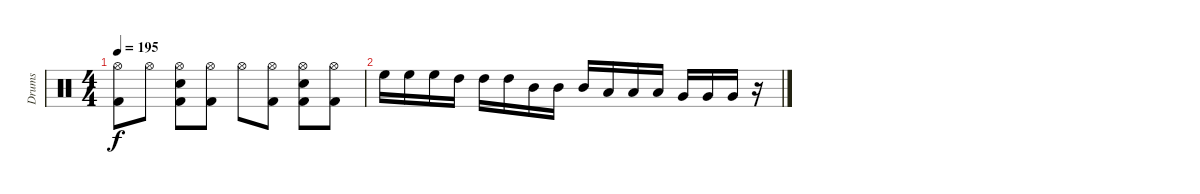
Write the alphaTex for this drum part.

\track ("Drums" "Drums") {instrument percussion}
\staff {score}
\articulation defaults
\ts (4 4)
\tempo 195
\clef neutral
\ks c
("Hi-Hat (open)" "Kick (hit) 2").8{dy f} "Hi-Hat (open)".8 ("Electric Snare (hit)" "Hi-Hat (open)" "Kick (hit) 2").8 ("Hi-Hat (open)" "Kick (hit) 2").8 "Hi-Hat (open)".8 ("Hi-Hat (open)" "Kick (hit) 2").8 ("Electric Snare (hit)" "Hi-Hat (open)" "Kick (hit) 2").8 ("Hi-Hat (open)" "Kick (hit) 2").8 |
"High Floor Tom (hit)".16 "High Floor Tom (hit)".16 "High Floor Tom (hit)".16 "High Tom (hit)".16 "High Tom (hit)".16 "High Tom (hit)".16 "Mid Tom (hit)".16 "Mid Tom (hit)".16 "Mid Tom (hit)".16 "Low Tom (hit)".16 "Low Tom (hit)".16 "Low Tom (hit)".16 "Very Low Tom (hit)".16 "Very Low Tom (hit)".16 "Very Low Tom (hit)".16 r.16
